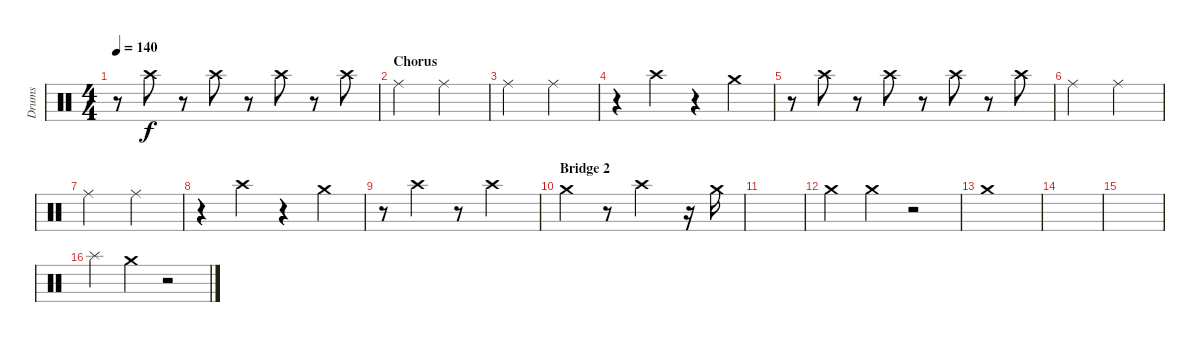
\track ("Drums" "Drums") {instrument percussion}
\staff {score}
\articulation defaults
\ts (4 4)
\tempo 140
\clef neutral
\ks c
r.8{dy f} "Crash high (hit)".8 r.8 "Crash high (hit)".8 r.8 "Crash high (hit)".8 r.8 "Crash high (hit)".8 |
\section ("" "Chorus")
"Ride (middle)".2 "Ride (middle)".2 |
"Ride (middle)".2 "Ride (middle)".2 |
r.4 "Crash high (hit)".4 r.4 "Crash medium (hit)".4 |
r.8 "Crash high (hit)".8 r.8 "Crash high (hit)".8 r.8 "Crash high (hit)".8 r.8 "Crash high (hit)".8 |
"Ride (middle)".2 "Ride (middle)".2 |
"Ride (middle)".2 "Ride (middle)".2 |
r.4 "Crash high (hit)".4 r.4 "Crash medium (hit)".4 |
r.8 "Crash high (hit)".4 r.8 "Crash high (hit)".2 |
\section ("" "Bridge 2")
"Crash medium (hit)".4 r.8 "Crash high (hit)".2 r.16 "Crash medium (hit)".16 |
|
"Crash medium (hit)".4 "Crash medium (hit)".4 r.2 |
"Crash medium (hit)".1 |
|
|
"Splash (hit)".4 "Crash medium (hit)".4 r.2
